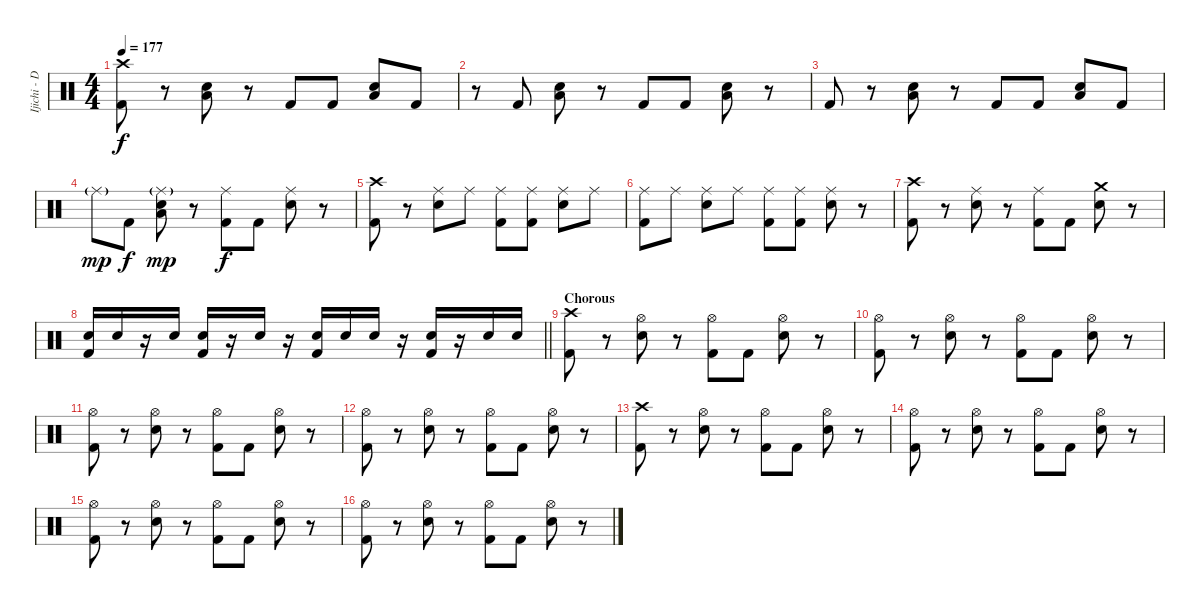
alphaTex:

\track ("Ijichi - Drums" "Ijichi - D") {instrument percussion}
\staff {score}
\articulation defaults
\ts (4 4)
\tempo 177
\clef neutral
\ks c
("Crash high (hit)" "Kick (hit) 2").8{dy f} r.8 ("Snare (hit) 2" "Low Floor Tom (hit)").8 r.8 "Kick (hit) 2".8 "Kick (hit) 2".8 ("Snare (hit) 2" "Low Floor Tom (hit)").8 "Kick (hit) 2".8 |
r.8 "Kick (hit) 2".8 ("Snare (hit) 2" "Low Floor Tom (hit)").8 r.8 "Kick (hit) 2".8 "Kick (hit) 2".8 ("Snare (hit) 2" "Low Floor Tom (hit)").8 r.8 |
"Kick (hit) 2".8 r.8 ("Snare (hit) 2" "Low Floor Tom (hit)").8 r.8 "Kick (hit) 2".8 "Kick (hit) 2".8 ("Snare (hit) 2" "Low Floor Tom (hit)").8 "Kick (hit) 2".8 |
"Ride (middle)"{g}.8{dy mp} "Kick (hit) 2".8{dy f} ("Ride (middle)"{g} "Snare (hit) 2" "Low Floor Tom (hit)").8{dy mp} r.8 ("Ride (middle)" "Kick (hit) 2").8{dy f} "Kick (hit) 2".8 ("Ride (middle)" "Snare (hit) 2").8 r.8 |
("Crash high (hit)" "Kick (hit) 2").8 r.8 ("Ride (middle)" "Snare (hit) 2").8 "Ride (middle)".8 ("Ride (middle)" "Kick (hit) 2").8 ("Ride (middle)" "Kick (hit) 2").8 ("Ride (middle)" "Snare (hit) 2").8 "Ride (middle)".8 |
("Ride (middle)" "Kick (hit) 2").8 "Ride (middle)".8 ("Ride (middle)" "Snare (hit) 2").8 "Ride (middle)".8 ("Ride (middle)" "Kick (hit) 2").8 ("Ride (middle)" "Kick (hit) 2").8 ("Ride (middle)" "Snare (hit) 2").8 r.8 |
("Crash high (hit)" "Kick (hit) 2").8 r.8 ("Ride (middle)" "Snare (hit) 2").8 r.8 ("Ride (middle)" "Kick (hit) 2").8 "Kick (hit) 2".8 ("Crash medium (hit)" "Snare (hit) 2").8 r.8 |
\barLineRight lightlight
("Snare (hit) 2" "Kick (hit) 2").16 "Snare (hit) 2".16 r.16 "Snare (hit) 2".16 ("Snare (hit) 2" "Kick (hit) 2").16 r.16 "Snare (hit) 2".16 r.16 ("Snare (hit) 2" "Kick (hit) 2").16 "Snare (hit) 2".16 "Snare (hit) 2".16 r.16 ("Snare (hit) 2" "Kick (hit) 2").16 r.16 "Snare (hit) 2".16 "Snare (hit) 2".16 |
\section ("" "Chorous")
("Crash high (hit)" "Kick (hit) 2").8 r.8 ("Hi-Hat (open)" "Snare (hit) 2").8 r.8 ("Hi-Hat (open)" "Kick (hit) 2").8 "Kick (hit) 2".8 ("Hi-Hat (open)" "Snare (hit) 2").8 r.8 |
("Hi-Hat (open)" "Kick (hit) 2").8 r.8 ("Hi-Hat (open)" "Snare (hit) 2").8 r.8 ("Hi-Hat (open)" "Kick (hit) 2").8 "Kick (hit) 2".8 ("Hi-Hat (open)" "Snare (hit) 2").8 r.8 |
("Hi-Hat (open)" "Kick (hit) 2").8 r.8 ("Hi-Hat (open)" "Snare (hit) 2").8 r.8 ("Hi-Hat (open)" "Kick (hit) 2").8 "Kick (hit) 2".8 ("Hi-Hat (open)" "Snare (hit) 2").8 r.8 |
("Hi-Hat (open)" "Kick (hit) 2").8 r.8 ("Hi-Hat (open)" "Snare (hit) 2").8 r.8 ("Hi-Hat (open)" "Kick (hit) 2").8 "Kick (hit) 2".8 ("Hi-Hat (open)" "Snare (hit) 2").8 r.8 |
("Crash high (hit)" "Kick (hit) 2").8 r.8 ("Hi-Hat (open)" "Snare (hit) 2").8 r.8 ("Hi-Hat (open)" "Kick (hit) 2").8 "Kick (hit) 2".8 ("Hi-Hat (open)" "Snare (hit) 2").8 r.8 |
("Hi-Hat (open)" "Kick (hit) 2").8 r.8 ("Hi-Hat (open)" "Snare (hit) 2").8 r.8 ("Hi-Hat (open)" "Kick (hit) 2").8 "Kick (hit) 2".8 ("Hi-Hat (open)" "Snare (hit) 2").8 r.8 |
("Hi-Hat (open)" "Kick (hit) 2").8 r.8 ("Hi-Hat (open)" "Snare (hit) 2").8 r.8 ("Hi-Hat (open)" "Kick (hit) 2").8 "Kick (hit) 2".8 ("Hi-Hat (open)" "Snare (hit) 2").8 r.8 |
("Hi-Hat (open)" "Kick (hit) 2").8 r.8 ("Hi-Hat (open)" "Snare (hit) 2").8 r.8 ("Hi-Hat (open)" "Kick (hit) 2").8 "Kick (hit) 2".8 ("Hi-Hat (open)" "Snare (hit) 2").8 r.8
